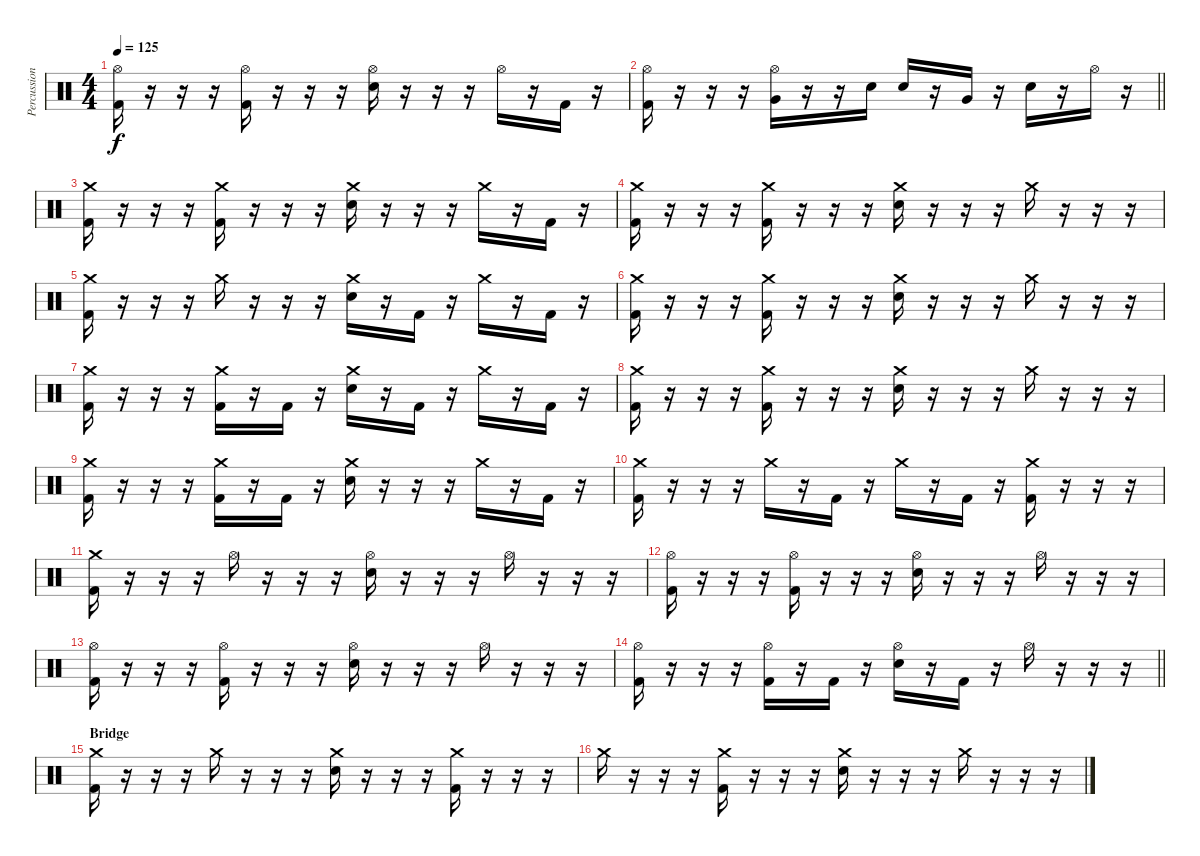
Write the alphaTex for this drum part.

\track ("Percussion" "Percussion") {instrument percussion}
\staff {score}
\articulation defaults
\ts (4 4)
\tempo 125
\clef neutral
\ks c
("Hi-Hat (open)" "Kick (hit) 2").16{dy f} r.16 r.16 r.16 ("Hi-Hat (open)" "Kick (hit) 2").16 r.16 r.16 r.16 ("Hi-Hat (open)" "Electric Snare (hit)").16 r.16 r.16 r.16 "Hi-Hat (open)".16 r.16 "Kick (hit) 2".16 r.16 |
\barLineRight lightlight
("Hi-Hat (open)" "Kick (hit) 2").16 r.16 r.16 r.16 ("Hi-Hat (open)" "Very Low Tom (hit)").16 r.16 r.16 "Electric Snare (hit)".16 "Electric Snare (hit)".16 r.16 "Very Low Tom (hit)".16 r.16 "Electric Snare (hit)".16 r.16 "Hi-Hat (open)".16 r.16 |
\section ("" "")
("Crash medium (hit)" "Kick (hit) 2").16 r.16 r.16 r.16 ("Crash medium (hit)" "Kick (hit) 2").16 r.16 r.16 r.16 ("Crash medium (hit)" "Electric Snare (hit)").16 r.16 r.16 r.16 "Crash medium (hit)".16 r.16 "Kick (hit) 2".16 r.16 |
("Crash medium (hit)" "Kick (hit) 2").16 r.16 r.16 r.16 ("Crash medium (hit)" "Kick (hit) 2").16 r.16 r.16 r.16 ("Crash medium (hit)" "Electric Snare (hit)").16 r.16 r.16 r.16 "Crash medium (hit)".16 r.16 r.16 r.16 |
("Crash medium (hit)" "Kick (hit) 2").16 r.16 r.16 r.16 "Crash medium (hit)".16 r.16 r.16 r.16 ("Crash medium (hit)" "Electric Snare (hit)").16 r.16 "Kick (hit) 2".16 r.16 "Crash medium (hit)".16 r.16 "Kick (hit) 2".16 r.16 |
("Crash medium (hit)" "Kick (hit) 2").16 r.16 r.16 r.16 ("Crash medium (hit)" "Kick (hit) 2").16 r.16 r.16 r.16 ("Crash medium (hit)" "Electric Snare (hit)").16 r.16 r.16 r.16 "Crash medium (hit)".16 r.16 r.16 r.16 |
("Crash medium (hit)" "Kick (hit) 2").16 r.16 r.16 r.16 ("Crash medium (hit)" "Kick (hit) 2").16 r.16 "Kick (hit) 2".16 r.16 ("Crash medium (hit)" "Electric Snare (hit)").16 r.16 "Kick (hit) 2".16 r.16 "Crash medium (hit)".16 r.16 "Kick (hit) 2".16 r.16 |
("Crash medium (hit)" "Kick (hit) 2").16 r.16 r.16 r.16 ("Crash medium (hit)" "Kick (hit) 2").16 r.16 r.16 r.16 ("Crash medium (hit)" "Electric Snare (hit)").16 r.16 r.16 r.16 "Crash medium (hit)".16 r.16 r.16 r.16 |
("Crash medium (hit)" "Kick (hit) 2").16 r.16 r.16 r.16 ("Crash medium (hit)" "Kick (hit) 2").16 r.16 "Kick (hit) 2".16 r.16 ("Crash medium (hit)" "Electric Snare (hit)").16 r.16 r.16 r.16 "Crash medium (hit)".16 r.16 "Kick (hit) 2".16 r.16 |
("Crash medium (hit)" "Kick (hit) 2").16 r.16 r.16 r.16 "Crash medium (hit)".16 r.16 "Kick (hit) 2".16 r.16 "Crash medium (hit)".16 r.16 "Kick (hit) 2".16 r.16 ("Crash medium (hit)" "Kick (hit) 2").16 r.16 r.16 r.16 |
("Crash medium (hit)" "Kick (hit) 2").16 r.16 r.16 r.16 "Hi-Hat (open)".16 r.16 r.16 r.16 ("Hi-Hat (open)" "Electric Snare (hit)").16 r.16 r.16 r.16 "Hi-Hat (open)".16 r.16 r.16 r.16 |
("Hi-Hat (open)" "Kick (hit) 2").16 r.16 r.16 r.16 ("Hi-Hat (open)" "Kick (hit) 2").16 r.16 r.16 r.16 ("Hi-Hat (open)" "Electric Snare (hit)").16 r.16 r.16 r.16 "Hi-Hat (open)".16 r.16 r.16 r.16 |
("Hi-Hat (open)" "Kick (hit) 2").16 r.16 r.16 r.16 ("Hi-Hat (open)" "Kick (hit) 2").16 r.16 r.16 r.16 ("Hi-Hat (open)" "Electric Snare (hit)").16 r.16 r.16 r.16 "Hi-Hat (open)".16 r.16 r.16 r.16 |
\barLineRight lightlight
("Hi-Hat (open)" "Kick (hit) 2").16 r.16 r.16 r.16 ("Hi-Hat (open)" "Kick (hit) 2").16 r.16 "Kick (hit) 2".16 r.16 ("Hi-Hat (open)" "Electric Snare (hit)").16 r.16 "Kick (hit) 2".16 r.16 "Hi-Hat (open)".16 r.16 r.16 r.16 |
\section ("" "Bridge")
("Crash medium (hit)" "Kick (hit) 2").16 r.16 r.16 r.16 "Crash medium (hit)".16 r.16 r.16 r.16 ("Crash medium (hit)" "Electric Snare (hit)").16 r.16 r.16 r.16 ("Crash medium (hit)" "Kick (hit) 2").16 r.16 r.16 r.16 |
"Crash medium (hit)".16 r.16 r.16 r.16 ("Crash medium (hit)" "Kick (hit) 2").16 r.16 r.16 r.16 ("Crash medium (hit)" "Electric Snare (hit)").16 r.16 r.16 r.16 "Crash medium (hit)".16 r.16 r.16 r.16
